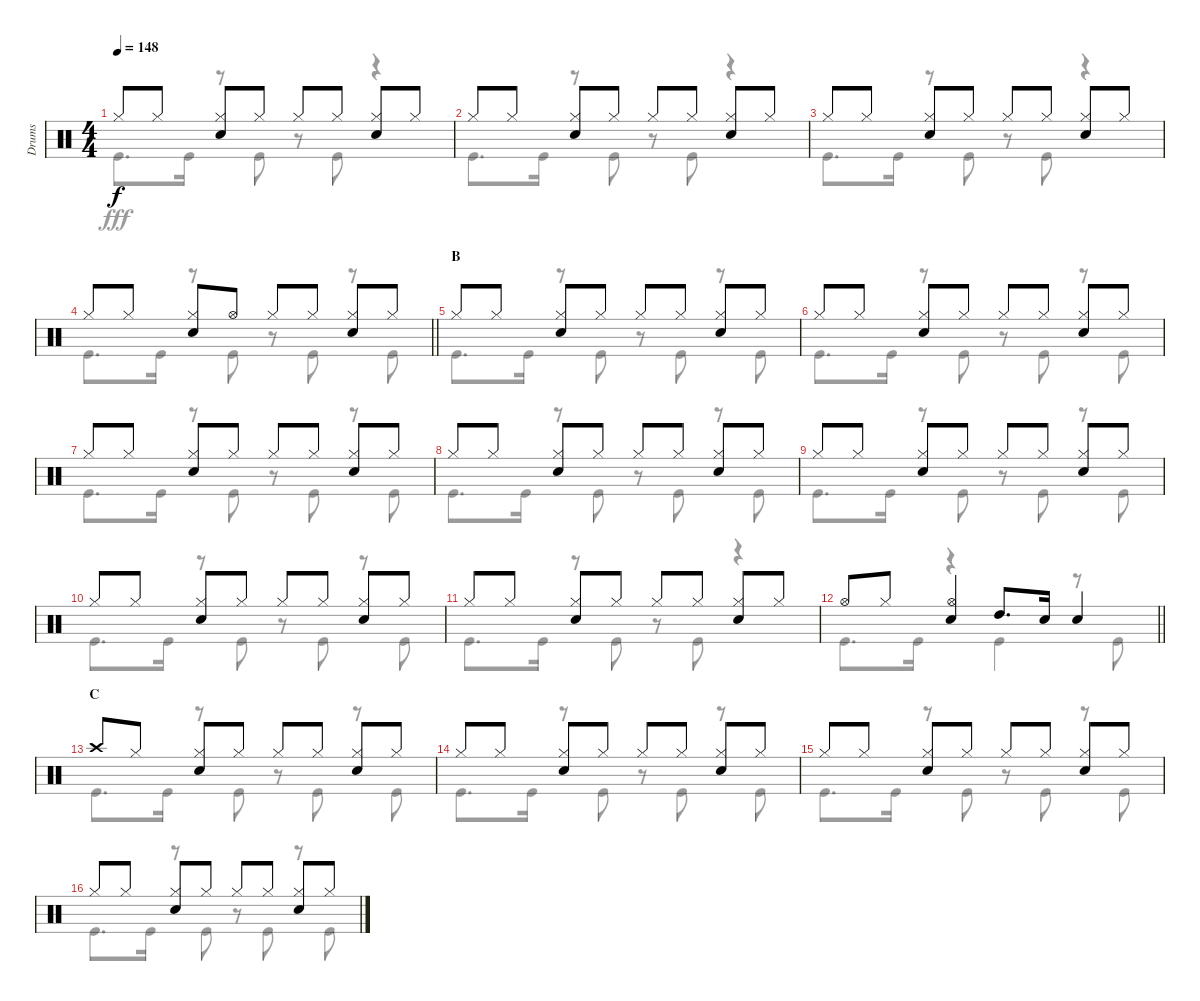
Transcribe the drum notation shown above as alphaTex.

\track ("Drums" "Drums") {instrument percussion}
\staff {score}
\articulation defaults
\voice
\ts (4 4)
\tempo 148
\clef neutral
\ks c "Hi-Hat (closed)".8{dy f} "Hi-Hat (closed)".8
("Hi-Hat (closed)" "Snare (hit) 2").8 "Hi-Hat (closed)".8 "Hi-Hat (closed)".8 "Hi-Hat (closed)".8 ("Hi-Hat (closed)" "Snare (hit) 2").8 "Hi-Hat (closed)".8 |
"Hi-Hat (closed)".8 "Hi-Hat (closed)".8 ("Hi-Hat (closed)" "Snare (hit) 2").8 "Hi-Hat (closed)".8 "Hi-Hat (closed)".8 "Hi-Hat (closed)".8 ("Hi-Hat (closed)" "Snare (hit) 2").8 "Hi-Hat (closed)".8 |
"Hi-Hat (closed)".8 "Hi-Hat (closed)".8 ("Hi-Hat (closed)" "Snare (hit) 2").8 "Hi-Hat (closed)".8 "Hi-Hat (closed)".8 "Hi-Hat (closed)".8 ("Hi-Hat (closed)" "Snare (hit) 2").8 "Hi-Hat (closed)".8 |
\barLineRight lightlight "Hi-Hat (closed)".8 "Hi-Hat (closed)".8
("Hi-Hat (closed)" "Snare (hit) 2").8 "Hi-Hat (open)".8 "Hi-Hat (closed)".8 "Hi-Hat (closed)".8 ("Hi-Hat (closed)" "Snare (hit) 2").8 "Hi-Hat (closed)".8 |
\section ("" "B")
"Hi-Hat (closed)".8 "Hi-Hat (closed)".8 ("Hi-Hat (closed)" "Snare (hit) 2").8 "Hi-Hat (closed)".8 "Hi-Hat (closed)".8 "Hi-Hat (closed)".8 ("Hi-Hat (closed)" "Snare (hit) 2").8 "Hi-Hat (closed)".8 |
"Hi-Hat (closed)".8 "Hi-Hat (closed)".8 ("Hi-Hat (closed)" "Snare (hit) 2").8 "Hi-Hat (closed)".8 "Hi-Hat (closed)".8 "Hi-Hat (closed)".8 ("Hi-Hat (closed)" "Snare (hit) 2").8 "Hi-Hat (closed)".8 |
"Hi-Hat (closed)".8 "Hi-Hat (closed)".8 ("Hi-Hat (closed)" "Snare (hit) 2").8 "Hi-Hat (closed)".8 "Hi-Hat (closed)".8 "Hi-Hat (closed)".8 ("Hi-Hat (closed)" "Snare (hit) 2").8 "Hi-Hat (closed)".8 |
"Hi-Hat (closed)".8 "Hi-Hat (closed)".8 ("Hi-Hat (closed)" "Snare (hit) 2").8 "Hi-Hat (closed)".8 "Hi-Hat (closed)".8 "Hi-Hat (closed)".8 ("Hi-Hat (closed)" "Snare (hit) 2").8 "Hi-Hat (closed)".8 |
"Hi-Hat (closed)".8 "Hi-Hat (closed)".8 ("Hi-Hat (closed)" "Snare (hit) 2").8 "Hi-Hat (closed)".8 "Hi-Hat (closed)".8 "Hi-Hat (closed)".8 ("Hi-Hat (closed)" "Snare (hit) 2").8 "Hi-Hat (closed)".8 |
"Hi-Hat (closed)".8 "Hi-Hat (closed)".8 ("Hi-Hat (closed)" "Snare (hit) 2").8 "Hi-Hat (closed)".8 "Hi-Hat (closed)".8 "Hi-Hat (closed)".8 ("Hi-Hat (closed)" "Snare (hit) 2").8 "Hi-Hat (closed)".8 |
"Hi-Hat (closed)".8 "Hi-Hat (closed)".8 ("Hi-Hat (closed)" "Snare (hit) 2").8 "Hi-Hat (closed)".8 "Hi-Hat (closed)".8 "Hi-Hat (closed)".8 ("Hi-Hat (closed)" "Snare (hit) 2").8 "Hi-Hat (closed)".8 |
\barLineRight lightlight "Hi-Hat (open)".8 "Hi-Hat (closed)".8
("Hi-Hat (open)" "Snare (hit) 2").4 "High Tom (hit)".8{d} "Snare (hit) 2".16 "Snare (hit) 2".4 |
\section ("" "C")
"Crash high (hit)".8 "Hi-Hat (closed)".8 ("Hi-Hat (closed)" "Snare (hit) 2").8 "Hi-Hat (closed)".8 "Hi-Hat (closed)".8 "Hi-Hat (closed)".8 ("Hi-Hat (closed)" "Snare (hit) 2").8 "Hi-Hat (closed)".8 |
"Hi-Hat (closed)".8 "Hi-Hat (closed)".8 ("Hi-Hat (closed)" "Snare (hit) 2").8 "Hi-Hat (closed)".8 "Hi-Hat (closed)".8 "Hi-Hat (closed)".8 ("Hi-Hat (closed)" "Snare (hit) 2").8 "Hi-Hat (closed)".8 |
"Hi-Hat (closed)".8 "Hi-Hat (closed)".8 ("Hi-Hat (closed)" "Snare (hit) 2").8 "Hi-Hat (closed)".8 "Hi-Hat (closed)".8 "Hi-Hat (closed)".8 ("Hi-Hat (closed)" "Snare (hit) 2").8 "Hi-Hat (closed)".8 |
"Hi-Hat (closed)".8 "Hi-Hat (closed)".8 ("Hi-Hat (closed)" "Snare (hit) 2").8 "Hi-Hat (closed)".8 "Hi-Hat (closed)".8 "Hi-Hat (closed)".8 ("Hi-Hat (closed)" "Snare (hit) 2").8 "Hi-Hat (closed)".8
\voice
\clef neutral
\ottava regular
\simile none
\ks c "Kick (hit)".8{d dy fff} "Kick (hit)".16
r.8 "Kick (hit)".8 r.8 "Kick (hit)".8 r.4 |
"Kick (hit)".8{d} "Kick (hit)".16 r.8 "Kick (hit)".8 r.8 "Kick (hit)".8 r.4 |
"Kick (hit)".8{d} "Kick (hit)".16 r.8 "Kick (hit)".8 r.8 "Kick (hit)".8 r.4 |
\barLineRight lightlight "Kick (hit)".8{d} "Kick (hit)".16
r.8 "Kick (hit)".8 r.8 "Kick (hit)".8 r.8 "Kick (hit)".8 |
"Kick (hit)".8{d} "Kick (hit)".16 r.8 "Kick (hit)".8 r.8 "Kick (hit)".8 r.8 "Kick (hit)".8 |
"Kick (hit)".8{d} "Kick (hit)".16 r.8 "Kick (hit)".8 r.8 "Kick (hit)".8 r.8 "Kick (hit)".8 |
"Kick (hit)".8{d} "Kick (hit)".16 r.8 "Kick (hit)".8 r.8 "Kick (hit)".8 r.8 "Kick (hit)".8 |
"Kick (hit)".8{d} "Kick (hit)".16 r.8 "Kick (hit)".8 r.8 "Kick (hit)".8 r.8 "Kick (hit)".8 |
"Kick (hit)".8{d} "Kick (hit)".16 r.8 "Kick (hit)".8 r.8 "Kick (hit)".8 r.8 "Kick (hit)".8 |
"Kick (hit)".8{d} "Kick (hit)".16 r.8 "Kick (hit)".8 r.8 "Kick (hit)".8 r.8 "Kick (hit)".8 |
"Kick (hit)".8{d} "Kick (hit)".16 r.8 "Kick (hit)".8 r.8 "Kick (hit)".8 r.4 |
\barLineRight lightlight "Kick (hit)".8{d} "Kick (hit)".16
r.4 "Kick (hit)".4 r.8 "Kick (hit)".8 |
"Kick (hit)".8{d} "Kick (hit)".16 r.8 "Kick (hit)".8 r.8 "Kick (hit)".8 r.8 "Kick (hit)".8 |
"Kick (hit)".8{d} "Kick (hit)".16 r.8 "Kick (hit)".8 r.8 "Kick (hit)".8 r.8 "Kick (hit)".8 |
"Kick (hit)".8{d} "Kick (hit)".16 r.8 "Kick (hit)".8 r.8 "Kick (hit)".8 r.8 "Kick (hit)".8 |
"Kick (hit)".8{d} "Kick (hit)".16 r.8 "Kick (hit)".8 r.8 "Kick (hit)".8 r.8 "Kick (hit)".8
